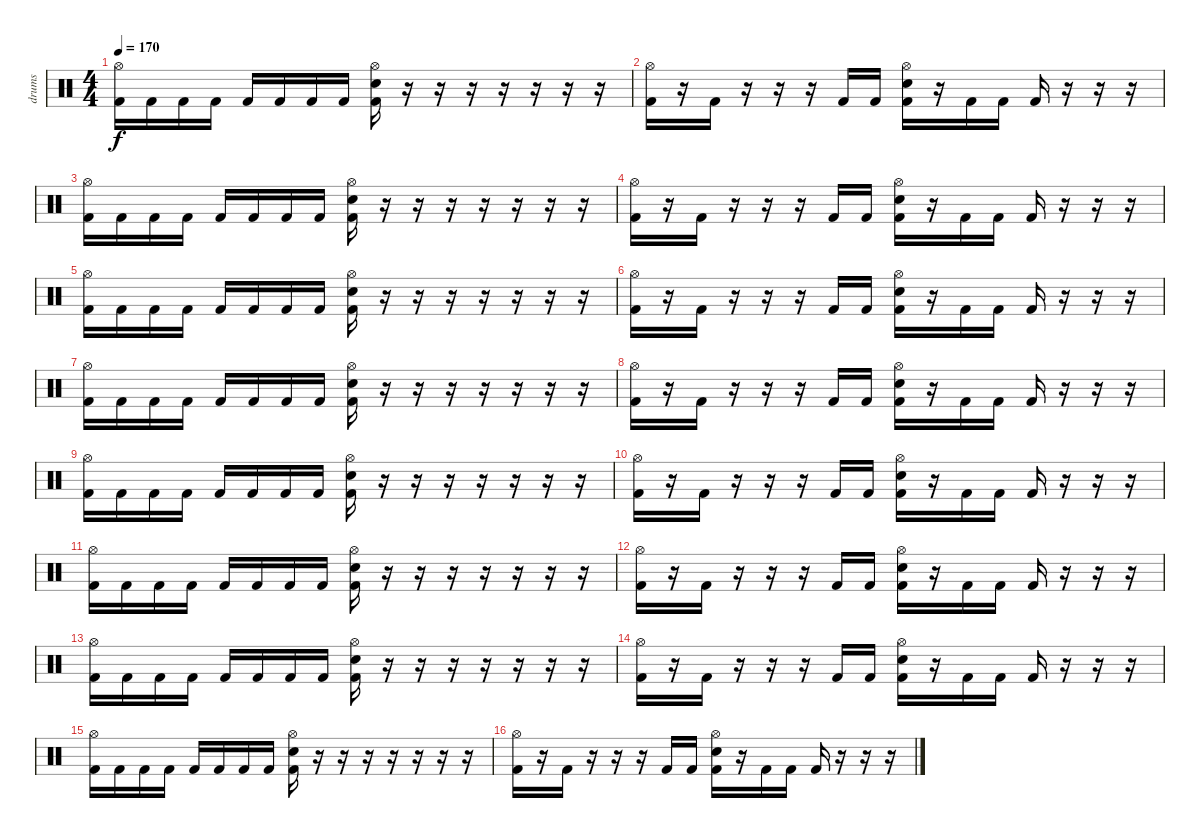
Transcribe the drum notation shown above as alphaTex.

\track ("drums" "drums") {instrument percussion}
\staff {score}
\articulation defaults
\ts (4 4)
\tempo 170
\clef neutral
\ks c
("Hi-Hat (open)" "Kick (hit) 2").16{dy f} "Kick (hit) 2".16 "Kick (hit) 2".16 "Kick (hit) 2".16 "Kick (hit) 2".16 "Kick (hit) 2".16 "Kick (hit) 2".16 "Kick (hit) 2".16 ("Hi-Hat (open)" "Electric Snare (hit)" "Kick (hit) 2").16 r.16 r.16 r.16 r.16 r.16 r.16 r.16 |
("Hi-Hat (open)" "Kick (hit) 2").16 r.16 "Kick (hit) 2".16 r.16 r.16 r.16 "Kick (hit) 2".16 "Kick (hit) 2".16 ("Hi-Hat (open)" "Electric Snare (hit)" "Kick (hit) 2").16 r.16 "Kick (hit) 2".16 "Kick (hit) 2".16 "Kick (hit) 2".16 r.16 r.16 r.16 |
("Hi-Hat (open)" "Kick (hit) 2").16 "Kick (hit) 2".16 "Kick (hit) 2".16 "Kick (hit) 2".16 "Kick (hit) 2".16 "Kick (hit) 2".16 "Kick (hit) 2".16 "Kick (hit) 2".16 ("Hi-Hat (open)" "Electric Snare (hit)" "Kick (hit) 2").16 r.16 r.16 r.16 r.16 r.16 r.16 r.16 |
("Hi-Hat (open)" "Kick (hit) 2").16 r.16 "Kick (hit) 2".16 r.16 r.16 r.16 "Kick (hit) 2".16 "Kick (hit) 2".16 ("Hi-Hat (open)" "Electric Snare (hit)" "Kick (hit) 2").16 r.16 "Kick (hit) 2".16 "Kick (hit) 2".16 "Kick (hit) 2".16 r.16 r.16 r.16 |
("Hi-Hat (open)" "Kick (hit) 2").16 "Kick (hit) 2".16 "Kick (hit) 2".16 "Kick (hit) 2".16 "Kick (hit) 2".16 "Kick (hit) 2".16 "Kick (hit) 2".16 "Kick (hit) 2".16 ("Hi-Hat (open)" "Electric Snare (hit)" "Kick (hit) 2").16 r.16 r.16 r.16 r.16 r.16 r.16 r.16 |
("Hi-Hat (open)" "Kick (hit) 2").16 r.16 "Kick (hit) 2".16 r.16 r.16 r.16 "Kick (hit) 2".16 "Kick (hit) 2".16 ("Hi-Hat (open)" "Electric Snare (hit)" "Kick (hit) 2").16 r.16 "Kick (hit) 2".16 "Kick (hit) 2".16 "Kick (hit) 2".16 r.16 r.16 r.16 |
("Hi-Hat (open)" "Kick (hit) 2").16 "Kick (hit) 2".16 "Kick (hit) 2".16 "Kick (hit) 2".16 "Kick (hit) 2".16 "Kick (hit) 2".16 "Kick (hit) 2".16 "Kick (hit) 2".16 ("Hi-Hat (open)" "Electric Snare (hit)" "Kick (hit) 2").16 r.16 r.16 r.16 r.16 r.16 r.16 r.16 |
("Hi-Hat (open)" "Kick (hit) 2").16 r.16 "Kick (hit) 2".16 r.16 r.16 r.16 "Kick (hit) 2".16 "Kick (hit) 2".16 ("Hi-Hat (open)" "Electric Snare (hit)" "Kick (hit) 2").16 r.16 "Kick (hit) 2".16 "Kick (hit) 2".16 "Kick (hit) 2".16 r.16 r.16 r.16 |
("Hi-Hat (open)" "Kick (hit) 2").16 "Kick (hit) 2".16 "Kick (hit) 2".16 "Kick (hit) 2".16 "Kick (hit) 2".16 "Kick (hit) 2".16 "Kick (hit) 2".16 "Kick (hit) 2".16 ("Hi-Hat (open)" "Electric Snare (hit)" "Kick (hit) 2").16 r.16 r.16 r.16 r.16 r.16 r.16 r.16 |
("Hi-Hat (open)" "Kick (hit) 2").16 r.16 "Kick (hit) 2".16 r.16 r.16 r.16 "Kick (hit) 2".16 "Kick (hit) 2".16 ("Hi-Hat (open)" "Electric Snare (hit)" "Kick (hit) 2").16 r.16 "Kick (hit) 2".16 "Kick (hit) 2".16 "Kick (hit) 2".16 r.16 r.16 r.16 |
("Hi-Hat (open)" "Kick (hit) 2").16 "Kick (hit) 2".16 "Kick (hit) 2".16 "Kick (hit) 2".16 "Kick (hit) 2".16 "Kick (hit) 2".16 "Kick (hit) 2".16 "Kick (hit) 2".16 ("Hi-Hat (open)" "Electric Snare (hit)" "Kick (hit) 2").16 r.16 r.16 r.16 r.16 r.16 r.16 r.16 |
("Hi-Hat (open)" "Kick (hit) 2").16 r.16 "Kick (hit) 2".16 r.16 r.16 r.16 "Kick (hit) 2".16 "Kick (hit) 2".16 ("Hi-Hat (open)" "Electric Snare (hit)" "Kick (hit) 2").16 r.16 "Kick (hit) 2".16 "Kick (hit) 2".16 "Kick (hit) 2".16 r.16 r.16 r.16 |
("Hi-Hat (open)" "Kick (hit) 2").16 "Kick (hit) 2".16 "Kick (hit) 2".16 "Kick (hit) 2".16 "Kick (hit) 2".16 "Kick (hit) 2".16 "Kick (hit) 2".16 "Kick (hit) 2".16 ("Hi-Hat (open)" "Electric Snare (hit)" "Kick (hit) 2").16 r.16 r.16 r.16 r.16 r.16 r.16 r.16 |
("Hi-Hat (open)" "Kick (hit) 2").16 r.16 "Kick (hit) 2".16 r.16 r.16 r.16 "Kick (hit) 2".16 "Kick (hit) 2".16 ("Hi-Hat (open)" "Electric Snare (hit)" "Kick (hit) 2").16 r.16 "Kick (hit) 2".16 "Kick (hit) 2".16 "Kick (hit) 2".16 r.16 r.16 r.16 |
("Hi-Hat (open)" "Kick (hit) 2").16 "Kick (hit) 2".16 "Kick (hit) 2".16 "Kick (hit) 2".16 "Kick (hit) 2".16 "Kick (hit) 2".16 "Kick (hit) 2".16 "Kick (hit) 2".16 ("Hi-Hat (open)" "Electric Snare (hit)" "Kick (hit) 2").16 r.16 r.16 r.16 r.16 r.16 r.16 r.16 |
("Hi-Hat (open)" "Kick (hit) 2").16 r.16 "Kick (hit) 2".16 r.16 r.16 r.16 "Kick (hit) 2".16 "Kick (hit) 2".16 ("Hi-Hat (open)" "Electric Snare (hit)" "Kick (hit) 2").16 r.16 "Kick (hit) 2".16 "Kick (hit) 2".16 "Kick (hit) 2".16 r.16 r.16 r.16
